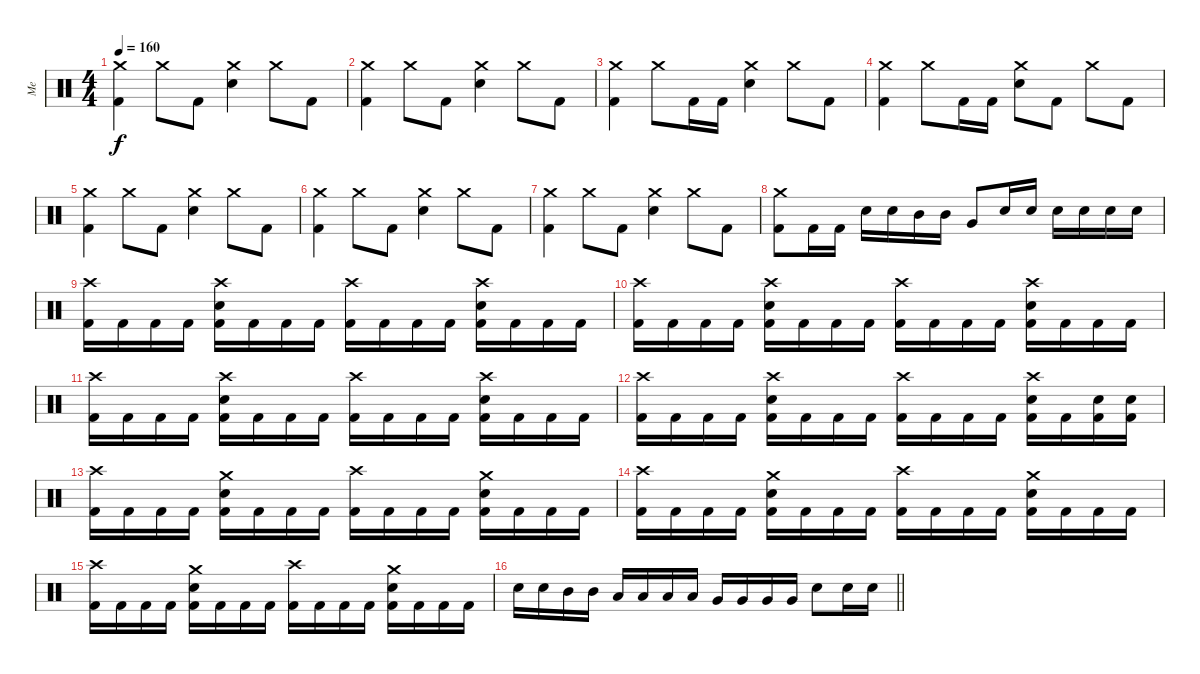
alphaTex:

\track ("Me" "Me") {instrument percussion}
\staff {score}
\articulation defaults
\ts (4 4)
\tempo 160
\clef neutral
\ks c
("Crash medium (hit)" "Kick (hit) 2").4{dy f volume 11} "Crash medium (hit)".8 "Kick (hit) 2".8 ("Crash medium (hit)" "Snare (hit) 2").4 "Crash medium (hit)".8 "Kick (hit) 2".8 |
("Crash medium (hit)" "Kick (hit) 2").4 "Crash medium (hit)".8 "Kick (hit) 2".8 ("Crash medium (hit)" "Snare (hit) 2").4 "Crash medium (hit)".8 "Kick (hit) 2".8 |
("Crash medium (hit)" "Kick (hit) 2").4 "Crash medium (hit)".8 "Kick (hit) 2".16 "Kick (hit) 2".16 ("Crash medium (hit)" "Snare (hit) 2").4 "Crash medium (hit)".8 "Kick (hit) 2".8 |
("Crash medium (hit)" "Kick (hit) 2").4 "Crash medium (hit)".8 "Kick (hit) 2".16 "Kick (hit) 2".16 ("Crash medium (hit)" "Snare (hit) 2").8 "Kick (hit) 2".8 "Crash medium (hit)".8 "Kick (hit) 2".8 |
("Crash medium (hit)" "Kick (hit) 2").4 "Crash medium (hit)".8 "Kick (hit) 2".8 ("Crash medium (hit)" "Snare (hit) 2").4 "Crash medium (hit)".8 "Kick (hit) 2".8 |
("Crash medium (hit)" "Kick (hit) 2").4 "Crash medium (hit)".8 "Kick (hit) 2".8 ("Crash medium (hit)" "Snare (hit) 2").4 "Crash medium (hit)".8 "Kick (hit) 2".8 |
("Crash medium (hit)" "Kick (hit) 2").4 "Crash medium (hit)".8 "Kick (hit) 2".8 ("Crash medium (hit)" "Snare (hit) 2").4 "Crash medium (hit)".8 "Kick (hit) 2".8 |
("Crash medium (hit)" "Kick (hit) 2").8 "Kick (hit) 2".16 "Kick (hit) 2".16 "Snare (hit) 2".16 "Snare (hit) 2".16 "Mid Tom (hit)".16 "Mid Tom (hit)".16 "Very Low Tom (hit)".8 "Snare (hit) 2".16 "Snare (hit) 2".16 "Snare (hit) 2".16 "Snare (hit) 2".16 "Snare (hit) 2".16 "Snare (hit) 2".16 |
("Crash high (hit)" "Kick (hit) 2").16 "Kick (hit) 2".16 "Kick (hit) 2".16 "Kick (hit) 2".16 ("Crash high (hit)" "Snare (hit) 2" "Kick (hit) 2").16 "Kick (hit) 2".16 "Kick (hit) 2".16 "Kick (hit) 2".16 ("Crash high (hit)" "Kick (hit) 2").16 "Kick (hit) 2".16 "Kick (hit) 2".16 "Kick (hit) 2".16 ("Crash high (hit)" "Snare (hit) 2" "Kick (hit) 2").16 "Kick (hit) 2".16 "Kick (hit) 2".16 "Kick (hit) 2".16 |
("Crash high (hit)" "Kick (hit) 2").16 "Kick (hit) 2".16 "Kick (hit) 2".16 "Kick (hit) 2".16 ("Crash high (hit)" "Snare (hit) 2" "Kick (hit) 2").16 "Kick (hit) 2".16 "Kick (hit) 2".16 "Kick (hit) 2".16 ("Crash high (hit)" "Kick (hit) 2").16 "Kick (hit) 2".16 "Kick (hit) 2".16 "Kick (hit) 2".16 ("Crash high (hit)" "Snare (hit) 2" "Kick (hit) 2").16 "Kick (hit) 2".16 "Kick (hit) 2".16 "Kick (hit) 2".16 |
("Crash high (hit)" "Kick (hit) 2").16 "Kick (hit) 2".16 "Kick (hit) 2".16 "Kick (hit) 2".16 ("Crash high (hit)" "Snare (hit) 2" "Kick (hit) 2").16 "Kick (hit) 2".16 "Kick (hit) 2".16 "Kick (hit) 2".16 ("Crash high (hit)" "Kick (hit) 2").16 "Kick (hit) 2".16 "Kick (hit) 2".16 "Kick (hit) 2".16 ("Crash high (hit)" "Snare (hit) 2" "Kick (hit) 2").16 "Kick (hit) 2".16 "Kick (hit) 2".16 "Kick (hit) 2".16 |
("Crash high (hit)" "Kick (hit) 2").16 "Kick (hit) 2".16 "Kick (hit) 2".16 "Kick (hit) 2".16 ("Crash high (hit)" "Snare (hit) 2" "Kick (hit) 2").16 "Kick (hit) 2".16 "Kick (hit) 2".16 "Kick (hit) 2".16 ("Crash high (hit)" "Kick (hit) 2").16 "Kick (hit) 2".16 "Kick (hit) 2".16 "Kick (hit) 2".16 ("Crash high (hit)" "Snare (hit) 2" "Kick (hit) 2").16 "Kick (hit) 2".16 ("Snare (hit) 2" "Kick (hit) 2").16 ("Snare (hit) 2" "Kick (hit) 2").16 |
("Crash high (hit)" "Kick (hit) 2").16 "Kick (hit) 2".16 "Kick (hit) 2".16 "Kick (hit) 2".16 ("Crash medium (hit)" "Snare (hit) 2" "Kick (hit) 2").16 "Kick (hit) 2".16 "Kick (hit) 2".16 "Kick (hit) 2".16 ("Crash high (hit)" "Kick (hit) 2").16 "Kick (hit) 2".16 "Kick (hit) 2".16 "Kick (hit) 2".16 ("Crash medium (hit)" "Snare (hit) 2" "Kick (hit) 2").16 "Kick (hit) 2".16 "Kick (hit) 2".16 "Kick (hit) 2".16 |
("Crash high (hit)" "Kick (hit) 2").16 "Kick (hit) 2".16 "Kick (hit) 2".16 "Kick (hit) 2".16 ("Crash medium (hit)" "Snare (hit) 2" "Kick (hit) 2").16 "Kick (hit) 2".16 "Kick (hit) 2".16 "Kick (hit) 2".16 ("Crash high (hit)" "Kick (hit) 2").16 "Kick (hit) 2".16 "Kick (hit) 2".16 "Kick (hit) 2".16 ("Crash medium (hit)" "Snare (hit) 2" "Kick (hit) 2").16 "Kick (hit) 2".16 "Kick (hit) 2".16 "Kick (hit) 2".16 |
("Crash high (hit)" "Kick (hit) 2").16 "Kick (hit) 2".16 "Kick (hit) 2".16 "Kick (hit) 2".16 ("Crash medium (hit)" "Snare (hit) 2" "Kick (hit) 2").16 "Kick (hit) 2".16 "Kick (hit) 2".16 "Kick (hit) 2".16 ("Crash high (hit)" "Kick (hit) 2").16 "Kick (hit) 2".16 "Kick (hit) 2".16 "Kick (hit) 2".16 ("Crash medium (hit)" "Snare (hit) 2" "Kick (hit) 2").16 "Kick (hit) 2".16 "Kick (hit) 2".16 "Kick (hit) 2".16 |
\barLineRight lightlight "Snare (hit) 2".16 "Snare (hit) 2".16 "Mid Tom (hit)".16 "Mid Tom (hit)".16 "Low Tom (hit)".16 "Low Tom (hit)".16 "Low Tom (hit)".16 "Low Tom (hit)".16 "Very Low Tom (hit)".16 "Very Low Tom (hit)".16 "Very Low Tom (hit)".16 "Very Low Tom (hit)".16 "Snare (hit) 2".8 "Snare (hit) 2".16 "Snare (hit) 2".16
